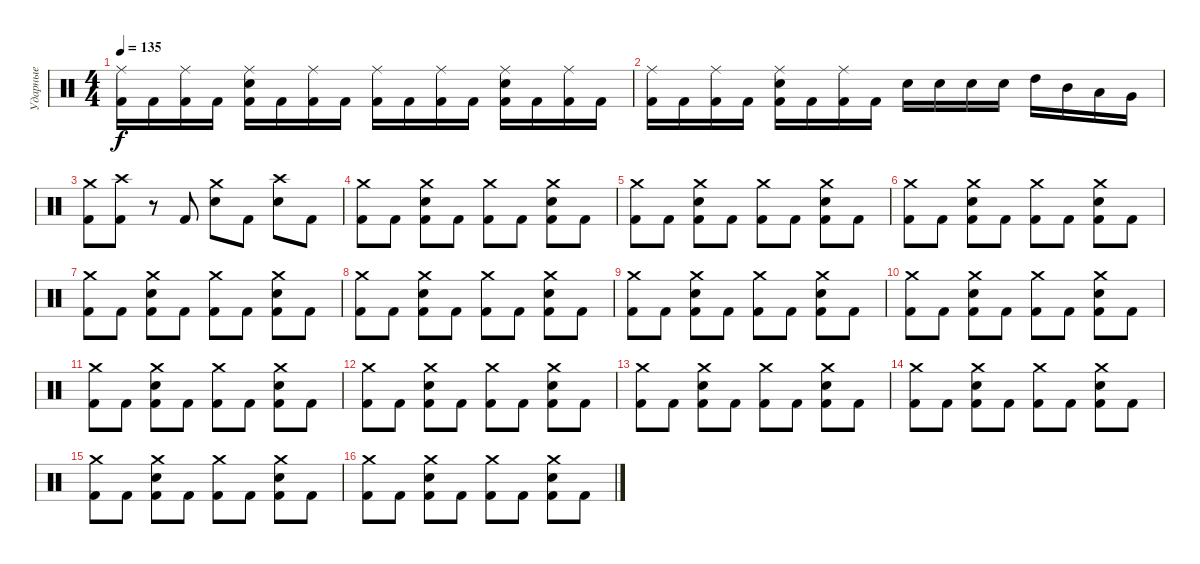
\track ("Ударные" "Ударные") {instrument percussion}
\staff {score}
\articulation defaults
\ts (4 4)
\tempo 135
\clef neutral
\ks c
("Ride (middle)" "Kick (hit) 2").16{dy f} "Kick (hit) 2".16 ("Ride (middle)" "Kick (hit) 2").16 "Kick (hit) 2".16 ("Ride (middle)" "Electric Snare (hit)" "Kick (hit) 2").16 "Kick (hit) 2".16 ("Ride (middle)" "Kick (hit) 2").16 "Kick (hit) 2".16 ("Ride (middle)" "Kick (hit) 2").16 "Kick (hit) 2".16 ("Ride (middle)" "Kick (hit) 2").16 "Kick (hit) 2".16 ("Ride (middle)" "Electric Snare (hit)" "Kick (hit) 2").16 "Kick (hit) 2".16 ("Ride (middle)" "Kick (hit) 2").16 "Kick (hit) 2".16 |
("Ride (middle)" "Kick (hit) 2").16 "Kick (hit) 2".16 ("Ride (middle)" "Kick (hit) 2").16 "Kick (hit) 2".16 ("Ride (middle)" "Electric Snare (hit)" "Kick (hit) 2").16 "Kick (hit) 2".16 ("Ride (middle)" "Kick (hit) 2").16 "Kick (hit) 2".16 "Electric Snare (hit)".16 "Electric Snare (hit)".16 "Electric Snare (hit)".16 "Electric Snare (hit)".16 "High Tom (hit)".16 "Mid Tom (hit)".16 "Low Tom (hit)".16 "Very Low Tom (hit)".16 |
("Crash medium (hit)" "Kick (hit) 2").8 ("Crash high (hit)" "Kick (hit) 2").8 r.8 "Kick (hit) 2".8 ("Crash medium (hit)" "Electric Snare (hit)").8 "Kick (hit) 2".8 ("Crash high (hit)" "Electric Snare (hit)").8 "Kick (hit) 2".8 |
("Crash medium (hit)" "Kick (hit) 2").8 "Kick (hit) 2".8 ("Crash medium (hit)" "Electric Snare (hit)" "Kick (hit) 2").8 "Kick (hit) 2".8 ("Crash medium (hit)" "Kick (hit) 2").8 "Kick (hit) 2".8 ("Crash medium (hit)" "Electric Snare (hit)" "Kick (hit) 2").8 "Kick (hit) 2".8 |
("Crash medium (hit)" "Kick (hit) 2").8 "Kick (hit) 2".8 ("Crash medium (hit)" "Electric Snare (hit)" "Kick (hit) 2").8 "Kick (hit) 2".8 ("Crash medium (hit)" "Kick (hit) 2").8 "Kick (hit) 2".8 ("Crash medium (hit)" "Electric Snare (hit)" "Kick (hit) 2").8 "Kick (hit) 2".8 |
("Crash medium (hit)" "Kick (hit) 2").8 "Kick (hit) 2".8 ("Crash medium (hit)" "Electric Snare (hit)" "Kick (hit) 2").8 "Kick (hit) 2".8 ("Crash medium (hit)" "Kick (hit) 2").8 "Kick (hit) 2".8 ("Crash medium (hit)" "Electric Snare (hit)" "Kick (hit) 2").8 "Kick (hit) 2".8 |
("Crash medium (hit)" "Kick (hit) 2").8 "Kick (hit) 2".8 ("Crash medium (hit)" "Electric Snare (hit)" "Kick (hit) 2").8 "Kick (hit) 2".8 ("Crash medium (hit)" "Kick (hit) 2").8 "Kick (hit) 2".8 ("Crash medium (hit)" "Electric Snare (hit)" "Kick (hit) 2").8 "Kick (hit) 2".8 |
("Crash medium (hit)" "Kick (hit) 2").8 "Kick (hit) 2".8 ("Crash medium (hit)" "Electric Snare (hit)" "Kick (hit) 2").8 "Kick (hit) 2".8 ("Crash medium (hit)" "Kick (hit) 2").8 "Kick (hit) 2".8 ("Crash medium (hit)" "Electric Snare (hit)" "Kick (hit) 2").8 "Kick (hit) 2".8 |
("Crash medium (hit)" "Kick (hit) 2").8 "Kick (hit) 2".8 ("Crash medium (hit)" "Electric Snare (hit)" "Kick (hit) 2").8 "Kick (hit) 2".8 ("Crash medium (hit)" "Kick (hit) 2").8 "Kick (hit) 2".8 ("Crash medium (hit)" "Electric Snare (hit)" "Kick (hit) 2").8 "Kick (hit) 2".8 |
("Crash medium (hit)" "Kick (hit) 2").8 "Kick (hit) 2".8 ("Crash medium (hit)" "Electric Snare (hit)" "Kick (hit) 2").8 "Kick (hit) 2".8 ("Crash medium (hit)" "Kick (hit) 2").8 "Kick (hit) 2".8 ("Crash medium (hit)" "Electric Snare (hit)" "Kick (hit) 2").8 "Kick (hit) 2".8 |
("Crash medium (hit)" "Kick (hit) 2").8 "Kick (hit) 2".8 ("Crash medium (hit)" "Electric Snare (hit)" "Kick (hit) 2").8 "Kick (hit) 2".8 ("Crash medium (hit)" "Kick (hit) 2").8 "Kick (hit) 2".8 ("Crash medium (hit)" "Electric Snare (hit)" "Kick (hit) 2").8 "Kick (hit) 2".8 |
("Crash medium (hit)" "Kick (hit) 2").8 "Kick (hit) 2".8 ("Crash medium (hit)" "Electric Snare (hit)" "Kick (hit) 2").8 "Kick (hit) 2".8 ("Crash medium (hit)" "Kick (hit) 2").8 "Kick (hit) 2".8 ("Crash medium (hit)" "Electric Snare (hit)" "Kick (hit) 2").8 "Kick (hit) 2".8 |
("Crash medium (hit)" "Kick (hit) 2").8 "Kick (hit) 2".8 ("Crash medium (hit)" "Electric Snare (hit)" "Kick (hit) 2").8 "Kick (hit) 2".8 ("Crash medium (hit)" "Kick (hit) 2").8 "Kick (hit) 2".8 ("Crash medium (hit)" "Electric Snare (hit)" "Kick (hit) 2").8 "Kick (hit) 2".8 |
("Crash medium (hit)" "Kick (hit) 2").8 "Kick (hit) 2".8 ("Crash medium (hit)" "Electric Snare (hit)" "Kick (hit) 2").8 "Kick (hit) 2".8 ("Crash medium (hit)" "Kick (hit) 2").8 "Kick (hit) 2".8 ("Crash medium (hit)" "Electric Snare (hit)" "Kick (hit) 2").8 "Kick (hit) 2".8 |
("Crash medium (hit)" "Kick (hit) 2").8 "Kick (hit) 2".8 ("Crash medium (hit)" "Electric Snare (hit)" "Kick (hit) 2").8 "Kick (hit) 2".8 ("Crash medium (hit)" "Kick (hit) 2").8 "Kick (hit) 2".8 ("Crash medium (hit)" "Electric Snare (hit)" "Kick (hit) 2").8 "Kick (hit) 2".8 |
("Crash medium (hit)" "Kick (hit) 2").8 "Kick (hit) 2".8 ("Crash medium (hit)" "Electric Snare (hit)" "Kick (hit) 2").8 "Kick (hit) 2".8 ("Crash medium (hit)" "Kick (hit) 2").8 "Kick (hit) 2".8 ("Crash medium (hit)" "Electric Snare (hit)" "Kick (hit) 2").8 "Kick (hit) 2".8
